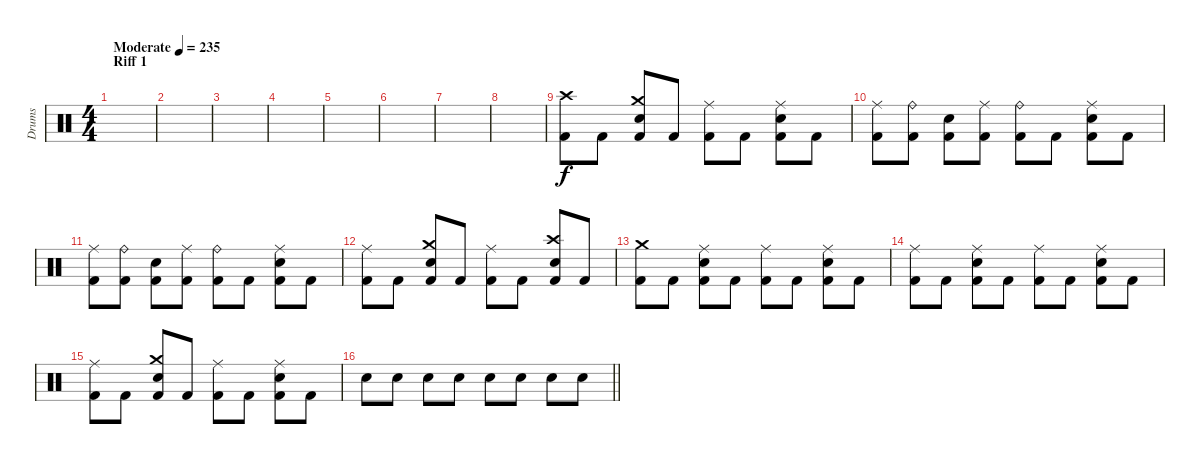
\track ("Drums" "Drums") {instrument percussion}
\staff {score}
\articulation defaults
\ts (4 4)
\section ("" "Riff 1")
\tempo (235 "Moderate")
\clef neutral
\ks aminor
|
|
|
|
|
|
|
|
("Kick (hit) 2" "Crash high (hit)").8 "Kick (hit) 2".8 ("Kick (hit) 2" "Crash medium (hit)" "Electric Snare (hit)").8 "Kick (hit) 2".8 ("Kick (hit) 2" "Ride (middle)").8 "Kick (hit) 2".8 ("Kick (hit) 2" "Electric Snare (hit)" "Ride (middle)").8 "Kick (hit) 2".8 |
("Kick (hit) 2" "Ride (middle)").8 ("Kick (hit) 2" "Ride (bell)").8 ("Kick (hit) 2" "Electric Snare (hit)").8 ("Kick (hit) 2" "Ride (middle)").8 ("Kick (hit) 2" "Ride (bell)").8 "Kick (hit) 2".8 ("Kick (hit) 2" "Electric Snare (hit)" "Ride (middle)").8 "Kick (hit) 2".8 |
("Kick (hit) 2" "Ride (middle)").8 ("Kick (hit) 2" "Ride (bell)").8 ("Kick (hit) 2" "Electric Snare (hit)").8 ("Kick (hit) 2" "Ride (middle)").8 ("Kick (hit) 2" "Ride (bell)").8 "Kick (hit) 2".8 ("Kick (hit) 2" "Electric Snare (hit)" "Ride (middle)").8 "Kick (hit) 2".8 |
("Ride (middle)" "Kick (hit) 2").8 "Kick (hit) 2".8 ("Crash medium (hit)" "Electric Snare (hit)" "Kick (hit) 2").8 "Kick (hit) 2".8 ("Ride (middle)" "Kick (hit) 2").8 "Kick (hit) 2".8 ("Crash high (hit)" "Electric Snare (hit)" "Kick (hit) 2").8 "Kick (hit) 2".8 |
("Crash medium (hit)" "Kick (hit) 2").8 "Kick (hit) 2".8 ("Ride (middle)" "Electric Snare (hit)" "Kick (hit) 2").8 "Kick (hit) 2".8 ("Ride (middle)" "Kick (hit) 2").8 "Kick (hit) 2".8 ("Ride (middle)" "Electric Snare (hit)" "Kick (hit) 2").8 "Kick (hit) 2".8 |
("Ride (middle)" "Kick (hit) 2").8 "Kick (hit) 2".8 ("Ride (middle)" "Electric Snare (hit)" "Kick (hit) 2").8 "Kick (hit) 2".8 ("Ride (middle)" "Kick (hit) 2").8 "Kick (hit) 2".8 ("Ride (middle)" "Electric Snare (hit)" "Kick (hit) 2").8 "Kick (hit) 2".8 |
("Ride (middle)" "Kick (hit) 2").8 "Kick (hit) 2".8 ("Crash medium (hit)" "Electric Snare (hit)" "Kick (hit) 2").8 "Kick (hit) 2".8 ("Ride (middle)" "Kick (hit) 2").8 "Kick (hit) 2".8 ("Ride (middle)" "Electric Snare (hit)" "Kick (hit) 2").8 "Kick (hit) 2".8 |
\barLineRight lightlight "Electric Snare (hit)".8 "Electric Snare (hit)".8 "Electric Snare (hit)".8 "Electric Snare (hit)".8 "Electric Snare (hit)".8 "Electric Snare (hit)".8 "Electric Snare (hit)".8 "Electric Snare (hit)".8
